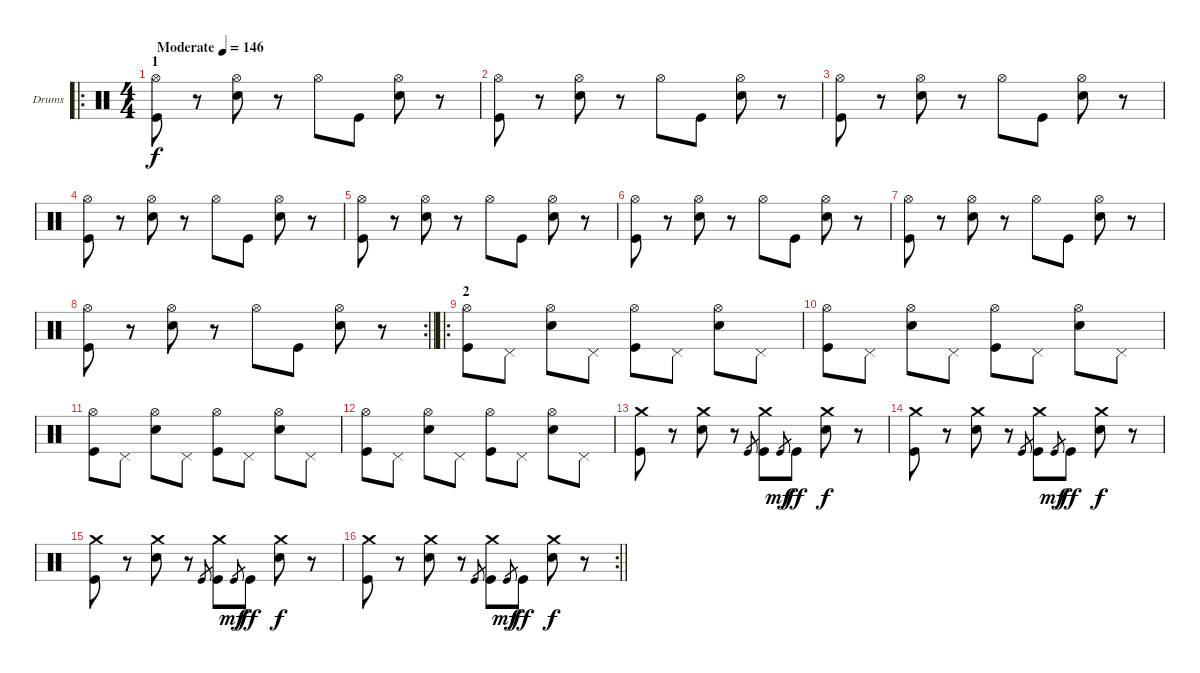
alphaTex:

\bracketExtendMode groupsimilarinstruments
\firstSystemTrackNameOrientation horizontal
\otherSystemsTrackNameOrientation horizontal
\track ("Drumkit" "Drums") {instrument percussion}
\staff {score}
\articulation defaults
\ro
\ts (4 4)
\beaming (8 2 2 2 2)
\section ("" "1")
\tempo (146 "Moderate")
\clef neutral
\ks c
("Hi-Hat (open)" "Kick (hit)").8{dy f} r.8 ("Hi-Hat (open)" "Snare (hit) 2").8 r.8 "Hi-Hat (open)".8 "Kick (hit)".8 ("Hi-Hat (open)" "Snare (hit) 2").8 r.8 |
("Hi-Hat (open)" "Kick (hit)").8 r.8 ("Hi-Hat (open)" "Snare (hit) 2").8 r.8 "Hi-Hat (open)".8 "Kick (hit)".8 ("Hi-Hat (open)" "Snare (hit) 2").8 r.8 |
("Hi-Hat (open)" "Kick (hit)").8 r.8 ("Hi-Hat (open)" "Snare (hit) 2").8 r.8 "Hi-Hat (open)".8 "Kick (hit)".8 ("Hi-Hat (open)" "Snare (hit) 2").8 r.8 |
("Hi-Hat (open)" "Kick (hit)").8 r.8 ("Hi-Hat (open)" "Snare (hit) 2").8 r.8 "Hi-Hat (open)".8 "Kick (hit)".8 ("Hi-Hat (open)" "Snare (hit) 2").8 r.8 |
("Hi-Hat (open)" "Kick (hit)").8 r.8 ("Hi-Hat (open)" "Snare (hit) 2").8 r.8 "Hi-Hat (open)".8 "Kick (hit)".8 ("Hi-Hat (open)" "Snare (hit) 2").8 r.8 |
("Hi-Hat (open)" "Kick (hit)").8 r.8 ("Hi-Hat (open)" "Snare (hit) 2").8 r.8 "Hi-Hat (open)".8 "Kick (hit)".8 ("Hi-Hat (open)" "Snare (hit) 2").8 r.8 |
("Hi-Hat (open)" "Kick (hit)").8 r.8 ("Hi-Hat (open)" "Snare (hit) 2").8 r.8 "Hi-Hat (open)".8 "Kick (hit)".8 ("Hi-Hat (open)" "Snare (hit) 2").8 r.8 |
\rc 2
\barLineRight lightlight
("Hi-Hat (open)" "Kick (hit)").8 r.8 ("Hi-Hat (open)" "Snare (hit) 2").8 r.8 "Hi-Hat (open)".8 "Kick (hit)".8 ("Hi-Hat (open)" "Snare (hit) 2").8 r.8 |
\ro
\section ("" "2")
("Hi-Hat (open)" "Kick (hit)").8 "Pedal Hi-Hat (hit)".8 ("Hi-Hat (open)" "Snare (hit) 2").8 "Pedal Hi-Hat (hit)".8 ("Hi-Hat (open)" "Kick (hit)").8 "Pedal Hi-Hat (hit)".8 ("Hi-Hat (open)" "Snare (hit) 2").8 "Pedal Hi-Hat (hit)".8 |
("Hi-Hat (open)" "Kick (hit)").8 "Pedal Hi-Hat (hit)".8 ("Hi-Hat (open)" "Snare (hit) 2").8 "Pedal Hi-Hat (hit)".8 ("Hi-Hat (open)" "Kick (hit)").8 "Pedal Hi-Hat (hit)".8 ("Hi-Hat (open)" "Snare (hit) 2").8 "Pedal Hi-Hat (hit)".8 |
("Hi-Hat (open)" "Kick (hit)").8 "Pedal Hi-Hat (hit)".8 ("Hi-Hat (open)" "Snare (hit) 2").8 "Pedal Hi-Hat (hit)".8 ("Hi-Hat (open)" "Kick (hit)").8 "Pedal Hi-Hat (hit)".8 ("Hi-Hat (open)" "Snare (hit) 2").8 "Pedal Hi-Hat (hit)".8 |
("Hi-Hat (open)" "Kick (hit)").8 "Pedal Hi-Hat (hit)".8 ("Hi-Hat (open)" "Snare (hit) 2").8 "Pedal Hi-Hat (hit)".8 ("Hi-Hat (open)" "Kick (hit)").8 "Pedal Hi-Hat (hit)".8 ("Hi-Hat (open)" "Snare (hit) 2").8 "Pedal Hi-Hat (hit)".8 |
("Crash medium (hit)" "Kick (hit)").8 r.8 ("Crash medium (hit)" "Snare (hit) 2").8 r.8 "Kick (hit)".8{gr} ("Crash medium (hit)" "Kick (hit)").8 "Kick (hit)".8{gr dy mf} "Kick (hit)".8{dy ff} ("Crash medium (hit)" "Snare (hit) 2").8{dy f} r.8 |
("Crash medium (hit)" "Kick (hit)").8 r.8 ("Crash medium (hit)" "Snare (hit) 2").8 r.8 "Kick (hit)".8{gr} ("Crash medium (hit)" "Kick (hit)").8 "Kick (hit)".8{gr dy mf} "Kick (hit)".8{dy ff} ("Crash medium (hit)" "Snare (hit) 2").8{dy f} r.8 |
("Crash medium (hit)" "Kick (hit)").8 r.8 ("Crash medium (hit)" "Snare (hit) 2").8 r.8 "Kick (hit)".8{gr} ("Crash medium (hit)" "Kick (hit)").8 "Kick (hit)".8{gr dy mf} "Kick (hit)".8{dy ff} ("Crash medium (hit)" "Snare (hit) 2").8{dy f} r.8 |
\rc 2
\barLineRight lightlight
("Crash medium (hit)" "Kick (hit)").8 r.8 ("Crash medium (hit)" "Snare (hit) 2").8 r.8 "Kick (hit)".8{gr} ("Crash medium (hit)" "Kick (hit)").8 "Kick (hit)".8{gr dy mf} "Kick (hit)".8{dy ff} ("Crash medium (hit)" "Snare (hit) 2").8{dy f} r.8
